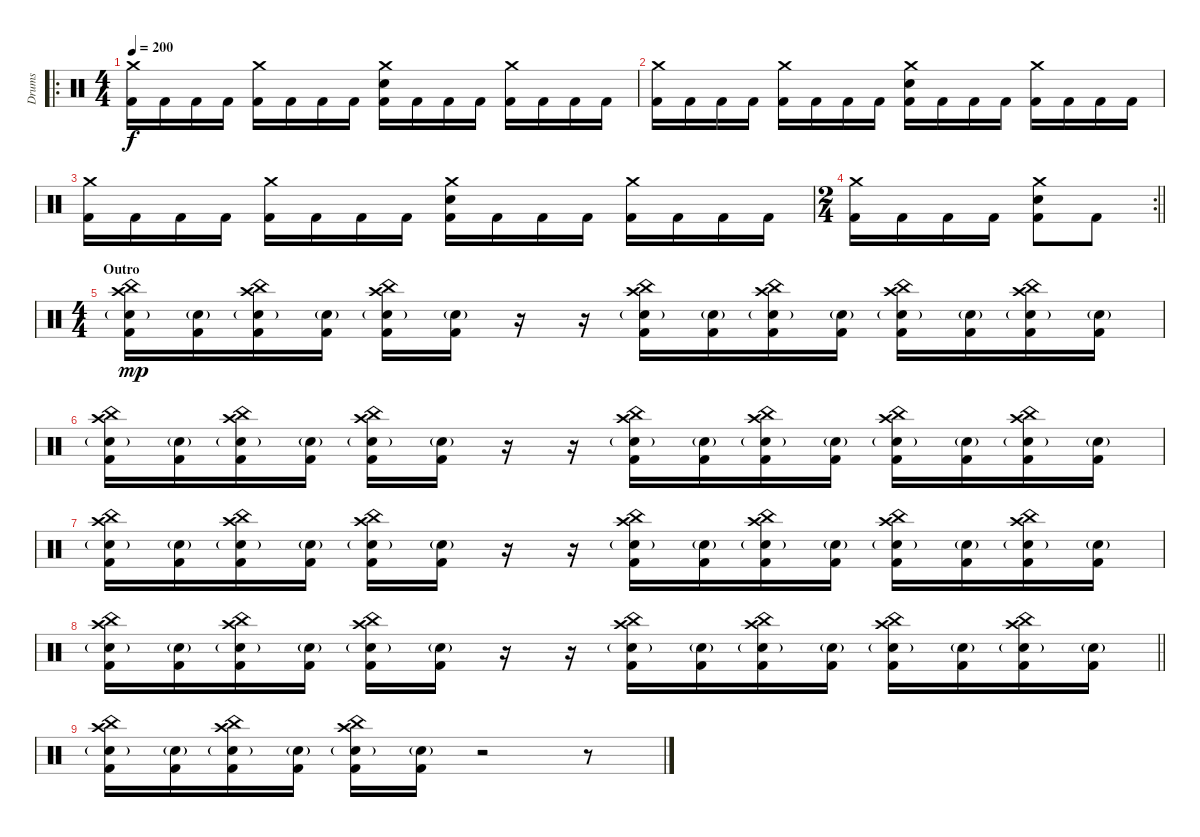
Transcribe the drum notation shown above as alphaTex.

\track ("Drums" "Drums") {instrument percussion}
\staff {score}
\articulation defaults
\ro
\ts (4 4)
\tempo 200
\clef neutral
\ks c
("Crash medium (hit)" "Kick (hit) 2").16{dy f} "Kick (hit) 2".16 "Kick (hit) 2".16 "Kick (hit) 2".16 ("Crash medium (hit)" "Kick (hit) 2").16 "Kick (hit) 2".16 "Kick (hit) 2".16 "Kick (hit) 2".16 ("Crash medium (hit)" "Snare (hit) 2" "Kick (hit) 2").16 "Kick (hit) 2".16 "Kick (hit) 2".16 "Kick (hit) 2".16 ("Crash medium (hit)" "Kick (hit) 2").16 "Kick (hit) 2".16 "Kick (hit) 2".16 "Kick (hit) 2".16 |
("Crash medium (hit)" "Kick (hit) 2").16 "Kick (hit) 2".16 "Kick (hit) 2".16 "Kick (hit) 2".16 ("Crash medium (hit)" "Kick (hit) 2").16 "Kick (hit) 2".16 "Kick (hit) 2".16 "Kick (hit) 2".16 ("Crash medium (hit)" "Snare (hit) 2" "Kick (hit) 2").16 "Kick (hit) 2".16 "Kick (hit) 2".16 "Kick (hit) 2".16 ("Crash medium (hit)" "Kick (hit) 2").16 "Kick (hit) 2".16 "Kick (hit) 2".16 "Kick (hit) 2".16 |
("Crash medium (hit)" "Kick (hit) 2").16 "Kick (hit) 2".16 "Kick (hit) 2".16 "Kick (hit) 2".16 ("Crash medium (hit)" "Kick (hit) 2").16 "Kick (hit) 2".16 "Kick (hit) 2".16 "Kick (hit) 2".16 ("Crash medium (hit)" "Snare (hit) 2" "Kick (hit) 2").16 "Kick (hit) 2".16 "Kick (hit) 2".16 "Kick (hit) 2".16 ("Crash medium (hit)" "Kick (hit) 2").16 "Kick (hit) 2".16 "Kick (hit) 2".16 "Kick (hit) 2".16 |
\rc 2
\ts (2 4)
\barLineRight lightlight
("Crash medium (hit)" "Kick (hit) 2").16 "Kick (hit) 2".16 "Kick (hit) 2".16 "Kick (hit) 2".16 ("Crash medium (hit)" "Snare (hit) 2" "Kick (hit) 2").8 "Kick (hit) 2".8 |
\ts (4 4)
\section ("" "Outro")
("Crash high (hit)" "China (hit)" "Snare (hit) 2"{g} "Kick (hit) 2").16{dy mp} ("Snare (hit) 2"{g} "Kick (hit) 2").16 ("Crash high (hit)" "China (hit)" "Snare (hit) 2"{g} "Kick (hit) 2").16 ("Snare (hit) 2"{g} "Kick (hit) 2").16 ("Crash high (hit)" "China (hit)" "Snare (hit) 2"{g} "Kick (hit) 2").16 ("Snare (hit) 2"{g} "Kick (hit) 2").16 r.16 r.16 ("Crash high (hit)" "China (hit)" "Snare (hit) 2"{g} "Kick (hit) 2").16 ("Snare (hit) 2"{g} "Kick (hit) 2").16 ("Crash high (hit)" "China (hit)" "Snare (hit) 2"{g} "Kick (hit) 2").16 ("Snare (hit) 2"{g} "Kick (hit) 2").16 ("Crash high (hit)" "China (hit)" "Snare (hit) 2"{g} "Kick (hit) 2").16 ("Snare (hit) 2"{g} "Kick (hit) 2").16 ("Crash high (hit)" "China (hit)" "Snare (hit) 2"{g} "Kick (hit) 2").16 ("Snare (hit) 2"{g} "Kick (hit) 2").16 |
("Crash high (hit)" "China (hit)" "Snare (hit) 2"{g} "Kick (hit) 2").16 ("Snare (hit) 2"{g} "Kick (hit) 2").16 ("Crash high (hit)" "China (hit)" "Snare (hit) 2"{g} "Kick (hit) 2").16 ("Snare (hit) 2"{g} "Kick (hit) 2").16 ("Crash high (hit)" "China (hit)" "Snare (hit) 2"{g} "Kick (hit) 2").16 ("Snare (hit) 2"{g} "Kick (hit) 2").16 r.16 r.16 ("Crash high (hit)" "China (hit)" "Snare (hit) 2"{g} "Kick (hit) 2").16 ("Snare (hit) 2"{g} "Kick (hit) 2").16 ("Crash high (hit)" "China (hit)" "Snare (hit) 2"{g} "Kick (hit) 2").16 ("Snare (hit) 2"{g} "Kick (hit) 2").16 ("Crash high (hit)" "China (hit)" "Snare (hit) 2"{g} "Kick (hit) 2").16 ("Snare (hit) 2"{g} "Kick (hit) 2").16 ("Crash high (hit)" "China (hit)" "Snare (hit) 2"{g} "Kick (hit) 2").16 ("Snare (hit) 2"{g} "Kick (hit) 2").16 |
("Crash high (hit)" "China (hit)" "Snare (hit) 2"{g} "Kick (hit) 2").16 ("Snare (hit) 2"{g} "Kick (hit) 2").16 ("Crash high (hit)" "China (hit)" "Snare (hit) 2"{g} "Kick (hit) 2").16 ("Snare (hit) 2"{g} "Kick (hit) 2").16 ("Crash high (hit)" "China (hit)" "Snare (hit) 2"{g} "Kick (hit) 2").16 ("Snare (hit) 2"{g} "Kick (hit) 2").16 r.16 r.16 ("Crash high (hit)" "China (hit)" "Snare (hit) 2"{g} "Kick (hit) 2").16 ("Snare (hit) 2"{g} "Kick (hit) 2").16 ("Crash high (hit)" "China (hit)" "Snare (hit) 2"{g} "Kick (hit) 2").16 ("Snare (hit) 2"{g} "Kick (hit) 2").16 ("Crash high (hit)" "China (hit)" "Snare (hit) 2"{g} "Kick (hit) 2").16 ("Snare (hit) 2"{g} "Kick (hit) 2").16 ("Crash high (hit)" "China (hit)" "Snare (hit) 2"{g} "Kick (hit) 2").16 ("Snare (hit) 2"{g} "Kick (hit) 2").16 |
\barLineRight lightlight
("Crash high (hit)" "China (hit)" "Snare (hit) 2"{g} "Kick (hit) 2").16 ("Snare (hit) 2"{g} "Kick (hit) 2").16 ("Crash high (hit)" "China (hit)" "Snare (hit) 2"{g} "Kick (hit) 2").16 ("Snare (hit) 2"{g} "Kick (hit) 2").16 ("Crash high (hit)" "China (hit)" "Snare (hit) 2"{g} "Kick (hit) 2").16 ("Snare (hit) 2"{g} "Kick (hit) 2").16 r.16 r.16 ("Crash high (hit)" "China (hit)" "Snare (hit) 2"{g} "Kick (hit) 2").16 ("Snare (hit) 2"{g} "Kick (hit) 2").16 ("Crash high (hit)" "China (hit)" "Snare (hit) 2"{g} "Kick (hit) 2").16 ("Snare (hit) 2"{g} "Kick (hit) 2").16 ("Crash high (hit)" "China (hit)" "Snare (hit) 2"{g} "Kick (hit) 2").16 ("Snare (hit) 2"{g} "Kick (hit) 2").16 ("Crash high (hit)" "China (hit)" "Snare (hit) 2"{g} "Kick (hit) 2").16 ("Snare (hit) 2"{g} "Kick (hit) 2").16 |
("Crash high (hit)" "China (hit)" "Snare (hit) 2"{g} "Kick (hit) 2").16 ("Snare (hit) 2"{g} "Kick (hit) 2").16 ("Crash high (hit)" "China (hit)" "Snare (hit) 2"{g} "Kick (hit) 2").16 ("Snare (hit) 2"{g} "Kick (hit) 2").16 ("Crash high (hit)" "China (hit)" "Snare (hit) 2"{g} "Kick (hit) 2").16 ("Snare (hit) 2"{g} "Kick (hit) 2").16 r.2 r.8
